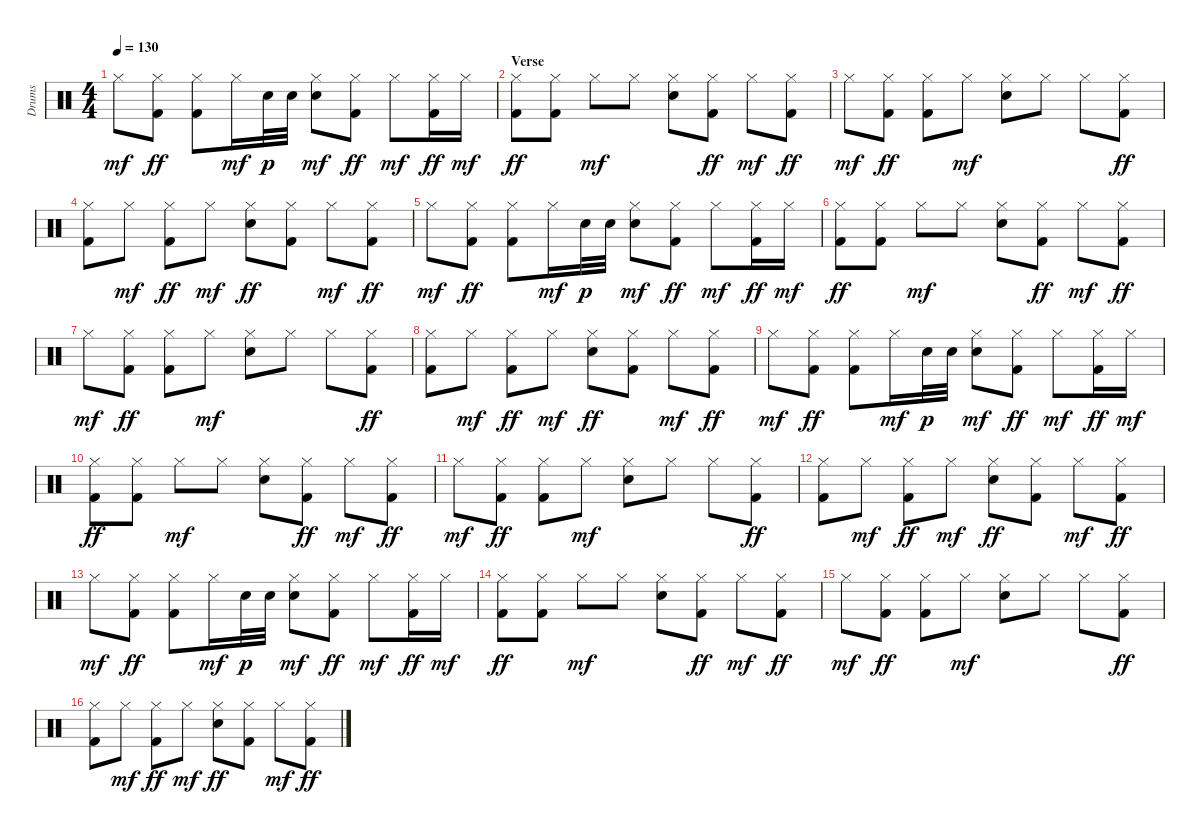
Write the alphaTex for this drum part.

\track ("Drums" "Drums") {instrument percussion}
\staff {score}
\articulation defaults
\ts (4 4)
\tempo 130
\clef neutral
\ks c "Hi-Hat (closed)".8{dy mf}
("Hi-Hat (closed)" "Kick (hit) 2").8{dy ff} ("Hi-Hat (closed)" "Kick (hit) 2").8 "Hi-Hat (closed)".16{dy mf} "Snare (hit) 2".32{dy p} "Snare (hit) 2".32 ("Hi-Hat (closed)" "Snare (hit) 2").8{dy mf} ("Hi-Hat (closed)" "Kick (hit) 2").8{dy ff} "Hi-Hat (closed)".8{dy mf} ("Hi-Hat (closed)" "Kick (hit) 2").16{dy ff} "Hi-Hat (closed)".16{dy mf} |
\section ("" "Verse")
("Hi-Hat (closed)" "Kick (hit) 2").8{dy ff} ("Hi-Hat (closed)" "Kick (hit) 2").8 "Hi-Hat (closed)".8{dy mf} "Hi-Hat (closed)".8 ("Hi-Hat (closed)" "Snare (hit) 2").8 ("Hi-Hat (closed)" "Kick (hit) 2").8{dy ff} "Hi-Hat (closed)".8{dy mf} ("Hi-Hat (closed)" "Kick (hit) 2").8{dy ff} |
"Hi-Hat (closed)".8{dy mf} ("Hi-Hat (closed)" "Kick (hit) 2").8{dy ff} ("Hi-Hat (closed)" "Kick (hit) 2").8 "Hi-Hat (closed)".8{dy mf} ("Hi-Hat (closed)" "Snare (hit) 2").8 "Hi-Hat (closed)".8 "Hi-Hat (closed)".8 ("Hi-Hat (closed)" "Kick (hit) 2").8{dy ff} |
("Hi-Hat (closed)" "Kick (hit) 2").8 "Hi-Hat (closed)".8{dy mf} ("Hi-Hat (closed)" "Kick (hit) 2").8{dy ff} "Hi-Hat (closed)".8{dy mf} ("Hi-Hat (closed)" "Snare (hit) 2").8{dy ff} ("Hi-Hat (closed)" "Kick (hit) 2").8 "Hi-Hat (closed)".8{dy mf} ("Hi-Hat (closed)" "Kick (hit) 2").8{dy ff} |
"Hi-Hat (closed)".8{dy mf} ("Hi-Hat (closed)" "Kick (hit) 2").8{dy ff} ("Hi-Hat (closed)" "Kick (hit) 2").8 "Hi-Hat (closed)".16{dy mf} "Snare (hit) 2".32{dy p} "Snare (hit) 2".32 ("Hi-Hat (closed)" "Snare (hit) 2").8{dy mf} ("Hi-Hat (closed)" "Kick (hit) 2").8{dy ff} "Hi-Hat (closed)".8{dy mf} ("Hi-Hat (closed)" "Kick (hit) 2").16{dy ff} "Hi-Hat (closed)".16{dy mf} |
("Hi-Hat (closed)" "Kick (hit) 2").8{dy ff} ("Hi-Hat (closed)" "Kick (hit) 2").8 "Hi-Hat (closed)".8{dy mf} "Hi-Hat (closed)".8 ("Hi-Hat (closed)" "Snare (hit) 2").8 ("Hi-Hat (closed)" "Kick (hit) 2").8{dy ff} "Hi-Hat (closed)".8{dy mf} ("Hi-Hat (closed)" "Kick (hit) 2").8{dy ff} |
"Hi-Hat (closed)".8{dy mf} ("Hi-Hat (closed)" "Kick (hit) 2").8{dy ff} ("Hi-Hat (closed)" "Kick (hit) 2").8 "Hi-Hat (closed)".8{dy mf} ("Hi-Hat (closed)" "Snare (hit) 2").8 "Hi-Hat (closed)".8 "Hi-Hat (closed)".8 ("Hi-Hat (closed)" "Kick (hit) 2").8{dy ff} |
("Hi-Hat (closed)" "Kick (hit) 2").8 "Hi-Hat (closed)".8{dy mf} ("Hi-Hat (closed)" "Kick (hit) 2").8{dy ff} "Hi-Hat (closed)".8{dy mf} ("Hi-Hat (closed)" "Snare (hit) 2").8{dy ff} ("Hi-Hat (closed)" "Kick (hit) 2").8 "Hi-Hat (closed)".8{dy mf} ("Hi-Hat (closed)" "Kick (hit) 2").8{dy ff} |
"Hi-Hat (closed)".8{dy mf} ("Hi-Hat (closed)" "Kick (hit) 2").8{dy ff} ("Hi-Hat (closed)" "Kick (hit) 2").8 "Hi-Hat (closed)".16{dy mf} "Snare (hit) 2".32{dy p} "Snare (hit) 2".32 ("Hi-Hat (closed)" "Snare (hit) 2").8{dy mf} ("Hi-Hat (closed)" "Kick (hit) 2").8{dy ff} "Hi-Hat (closed)".8{dy mf} ("Hi-Hat (closed)" "Kick (hit) 2").16{dy ff} "Hi-Hat (closed)".16{dy mf} |
("Hi-Hat (closed)" "Kick (hit) 2").8{dy ff} ("Hi-Hat (closed)" "Kick (hit) 2").8 "Hi-Hat (closed)".8{dy mf} "Hi-Hat (closed)".8 ("Hi-Hat (closed)" "Snare (hit) 2").8 ("Hi-Hat (closed)" "Kick (hit) 2").8{dy ff} "Hi-Hat (closed)".8{dy mf} ("Hi-Hat (closed)" "Kick (hit) 2").8{dy ff} |
"Hi-Hat (closed)".8{dy mf} ("Hi-Hat (closed)" "Kick (hit) 2").8{dy ff} ("Hi-Hat (closed)" "Kick (hit) 2").8 "Hi-Hat (closed)".8{dy mf} ("Hi-Hat (closed)" "Snare (hit) 2").8 "Hi-Hat (closed)".8 "Hi-Hat (closed)".8 ("Hi-Hat (closed)" "Kick (hit) 2").8{dy ff} |
("Hi-Hat (closed)" "Kick (hit) 2").8 "Hi-Hat (closed)".8{dy mf} ("Hi-Hat (closed)" "Kick (hit) 2").8{dy ff} "Hi-Hat (closed)".8{dy mf} ("Hi-Hat (closed)" "Snare (hit) 2").8{dy ff} ("Hi-Hat (closed)" "Kick (hit) 2").8 "Hi-Hat (closed)".8{dy mf} ("Hi-Hat (closed)" "Kick (hit) 2").8{dy ff} |
"Hi-Hat (closed)".8{dy mf} ("Hi-Hat (closed)" "Kick (hit) 2").8{dy ff} ("Hi-Hat (closed)" "Kick (hit) 2").8 "Hi-Hat (closed)".16{dy mf} "Snare (hit) 2".32{dy p} "Snare (hit) 2".32 ("Hi-Hat (closed)" "Snare (hit) 2").8{dy mf} ("Hi-Hat (closed)" "Kick (hit) 2").8{dy ff} "Hi-Hat (closed)".8{dy mf} ("Hi-Hat (closed)" "Kick (hit) 2").16{dy ff} "Hi-Hat (closed)".16{dy mf} |
("Hi-Hat (closed)" "Kick (hit) 2").8{dy ff} ("Hi-Hat (closed)" "Kick (hit) 2").8 "Hi-Hat (closed)".8{dy mf} "Hi-Hat (closed)".8 ("Hi-Hat (closed)" "Snare (hit) 2").8 ("Hi-Hat (closed)" "Kick (hit) 2").8{dy ff} "Hi-Hat (closed)".8{dy mf} ("Hi-Hat (closed)" "Kick (hit) 2").8{dy ff} |
"Hi-Hat (closed)".8{dy mf} ("Hi-Hat (closed)" "Kick (hit) 2").8{dy ff} ("Hi-Hat (closed)" "Kick (hit) 2").8 "Hi-Hat (closed)".8{dy mf} ("Hi-Hat (closed)" "Snare (hit) 2").8 "Hi-Hat (closed)".8 "Hi-Hat (closed)".8 ("Hi-Hat (closed)" "Kick (hit) 2").8{dy ff} |
("Hi-Hat (closed)" "Kick (hit) 2").8 "Hi-Hat (closed)".8{dy mf} ("Hi-Hat (closed)" "Kick (hit) 2").8{dy ff} "Hi-Hat (closed)".8{dy mf} ("Hi-Hat (closed)" "Snare (hit) 2").8{dy ff} ("Hi-Hat (closed)" "Kick (hit) 2").8 "Hi-Hat (closed)".8{dy mf} ("Hi-Hat (closed)" "Kick (hit) 2").8{dy ff}
